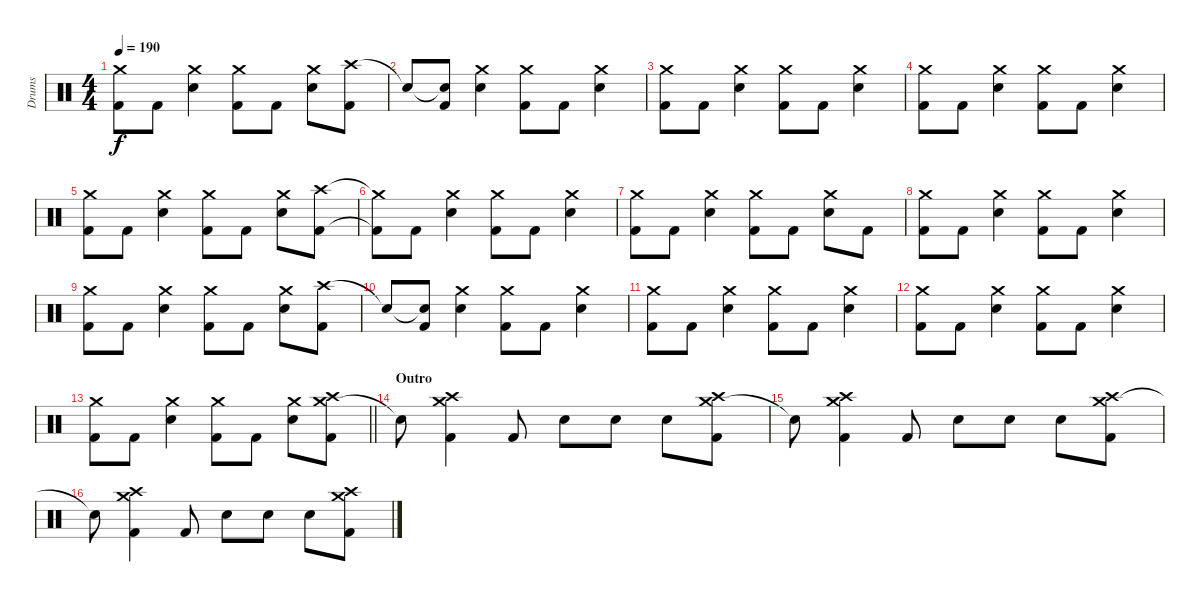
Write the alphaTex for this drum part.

\track ("Drums" "Drums") {instrument percussion}
\staff {score}
\articulation defaults
\ts (4 4)
\tempo 190
\clef neutral
\ks c
("Crash medium (hit)" "Kick (hit) 2").8{dy f} "Kick (hit) 2".8 ("Crash medium (hit)" "Electric Snare (hit)").4 ("Crash medium (hit)" "Kick (hit) 2").8 "Kick (hit) 2".8 ("Crash medium (hit)" "Electric Snare (hit)").8 ("Crash high (hit)" "Kick (hit) 2").8 |
"Snare (hit)"{t}.8 ("Snare (hit)"{t} "Kick (hit) 2").8 ("Crash medium (hit)" "Electric Snare (hit)").4 ("Crash medium (hit)" "Kick (hit) 2").8 "Kick (hit) 2".8 ("Crash medium (hit)" "Electric Snare (hit)").4 |
("Crash medium (hit)" "Kick (hit) 2").8 "Kick (hit) 2".8 ("Crash medium (hit)" "Electric Snare (hit)").4 ("Crash medium (hit)" "Kick (hit) 2").8 "Kick (hit) 2".8 ("Crash medium (hit)" "Electric Snare (hit)").4 |
("Crash medium (hit)" "Kick (hit) 2").8 "Kick (hit) 2".8 ("Crash medium (hit)" "Electric Snare (hit)").4 ("Crash medium (hit)" "Kick (hit) 2").8 "Kick (hit) 2".8 ("Crash medium (hit)" "Electric Snare (hit)").4 |
("Crash medium (hit)" "Kick (hit) 2").8 "Kick (hit) 2".8 ("Crash medium (hit)" "Electric Snare (hit)").4 ("Crash medium (hit)" "Kick (hit) 2").8 "Kick (hit) 2".8 ("Crash medium (hit)" "Electric Snare (hit)").8 ("Crash high (hit)" "Kick (hit) 2").8 |
("Crash medium (hit)"{t} "Kick (hit) 2"{t}).8 "Kick (hit) 2".8 ("Crash medium (hit)" "Electric Snare (hit)").4 ("Crash medium (hit)" "Kick (hit) 2").8 "Kick (hit) 2".8 ("Crash medium (hit)" "Electric Snare (hit)").4 |
("Crash medium (hit)" "Kick (hit) 2").8 "Kick (hit) 2".8 ("Crash medium (hit)" "Electric Snare (hit)").4 ("Crash medium (hit)" "Kick (hit) 2").8 "Kick (hit) 2".8 ("Crash medium (hit)" "Electric Snare (hit)").8 "Kick (hit) 2".8 |
("Crash medium (hit)" "Kick (hit) 2").8 "Kick (hit) 2".8 ("Crash medium (hit)" "Electric Snare (hit)").4 ("Crash medium (hit)" "Kick (hit) 2").8 "Kick (hit) 2".8 ("Crash medium (hit)" "Electric Snare (hit)").4 |
("Crash medium (hit)" "Kick (hit) 2").8 "Kick (hit) 2".8 ("Crash medium (hit)" "Electric Snare (hit)").4 ("Crash medium (hit)" "Kick (hit) 2").8 "Kick (hit) 2".8 ("Crash medium (hit)" "Electric Snare (hit)").8 ("Crash high (hit)" "Kick (hit) 2").8 |
"Snare (hit)"{t}.8 ("Snare (hit)"{t} "Kick (hit) 2").8 ("Crash medium (hit)" "Electric Snare (hit)").4 ("Crash medium (hit)" "Kick (hit) 2").8 "Kick (hit) 2".8 ("Crash medium (hit)" "Electric Snare (hit)").4 |
("Crash medium (hit)" "Kick (hit) 2").8 "Kick (hit) 2".8 ("Crash medium (hit)" "Electric Snare (hit)").4 ("Crash medium (hit)" "Kick (hit) 2").8 "Kick (hit) 2".8 ("Crash medium (hit)" "Electric Snare (hit)").4 |
("Crash medium (hit)" "Kick (hit) 2").8 "Kick (hit) 2".8 ("Crash medium (hit)" "Electric Snare (hit)").4 ("Crash medium (hit)" "Kick (hit) 2").8 "Kick (hit) 2".8 ("Crash medium (hit)" "Electric Snare (hit)").4 |
\barLineRight lightlight
("Crash medium (hit)" "Kick (hit) 2").8 "Kick (hit) 2".8 ("Crash medium (hit)" "Electric Snare (hit)").4 ("Crash medium (hit)" "Kick (hit) 2").8 "Kick (hit) 2".8 ("Crash medium (hit)" "Electric Snare (hit)").8 ("Crash medium (hit)" "Crash high (hit)" "Kick (hit) 2").8 |
\section ("" "Outro")
"Snare (hit)"{t}.8 ("Crash medium (hit)" "Crash high (hit)" "Kick (hit) 2").4 "Kick (hit) 2".8 "Electric Snare (hit)".8 "Electric Snare (hit)".8 "Electric Snare (hit)".8 ("Crash medium (hit)" "Crash high (hit)" "Kick (hit) 2").8 |
"Snare (hit)"{t}.8 ("Crash medium (hit)" "Crash high (hit)" "Kick (hit) 2").4 "Kick (hit) 2".8 "Electric Snare (hit)".8 "Electric Snare (hit)".8 "Electric Snare (hit)".8 ("Crash medium (hit)" "Crash high (hit)" "Kick (hit) 2").8 |
"Snare (hit)"{t}.8 ("Crash medium (hit)" "Crash high (hit)" "Kick (hit) 2").4 "Kick (hit) 2".8 "Electric Snare (hit)".8 "Electric Snare (hit)".8 "Electric Snare (hit)".8 ("Crash medium (hit)" "Crash high (hit)" "Kick (hit) 2").8
